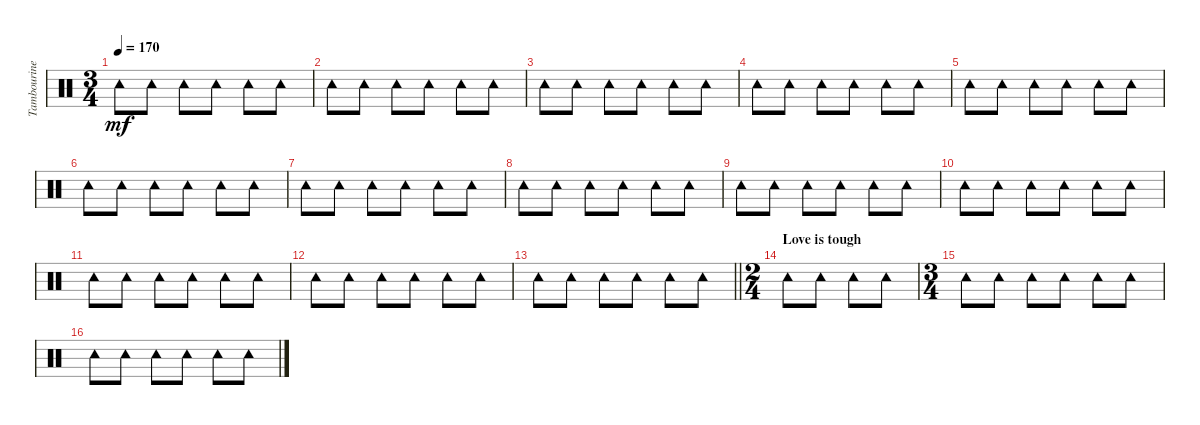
\track ("Tambourine" "Tambourine") {instrument percussion}
\staff {score}
\articulation defaults
\ts (3 4)
\tempo 170
\clef neutral
\ks c "Tambourine (hit)".8{dy mf} "Tambourine (hit)".8 "Tambourine (hit)".8 "Tambourine (hit)".8 "Tambourine (hit)".8 "Tambourine (hit)".8
|
"Tambourine (hit)".8 "Tambourine (hit)".8 "Tambourine (hit)".8 "Tambourine (hit)".8 "Tambourine (hit)".8 "Tambourine (hit)".8 |
"Tambourine (hit)".8 "Tambourine (hit)".8 "Tambourine (hit)".8 "Tambourine (hit)".8 "Tambourine (hit)".8 "Tambourine (hit)".8 |
"Tambourine (hit)".8 "Tambourine (hit)".8 "Tambourine (hit)".8 "Tambourine (hit)".8 "Tambourine (hit)".8 "Tambourine (hit)".8 |
"Tambourine (hit)".8 "Tambourine (hit)".8 "Tambourine (hit)".8 "Tambourine (hit)".8 "Tambourine (hit)".8 "Tambourine (hit)".8 |
"Tambourine (hit)".8 "Tambourine (hit)".8 "Tambourine (hit)".8 "Tambourine (hit)".8 "Tambourine (hit)".8 "Tambourine (hit)".8 |
"Tambourine (hit)".8 "Tambourine (hit)".8 "Tambourine (hit)".8 "Tambourine (hit)".8 "Tambourine (hit)".8 "Tambourine (hit)".8 |
"Tambourine (hit)".8 "Tambourine (hit)".8 "Tambourine (hit)".8 "Tambourine (hit)".8 "Tambourine (hit)".8 "Tambourine (hit)".8 |
"Tambourine (hit)".8 "Tambourine (hit)".8 "Tambourine (hit)".8 "Tambourine (hit)".8 "Tambourine (hit)".8 "Tambourine (hit)".8 |
"Tambourine (hit)".8 "Tambourine (hit)".8 "Tambourine (hit)".8 "Tambourine (hit)".8 "Tambourine (hit)".8 "Tambourine (hit)".8 |
"Tambourine (hit)".8 "Tambourine (hit)".8 "Tambourine (hit)".8 "Tambourine (hit)".8 "Tambourine (hit)".8 "Tambourine (hit)".8 |
"Tambourine (hit)".8 "Tambourine (hit)".8 "Tambourine (hit)".8 "Tambourine (hit)".8 "Tambourine (hit)".8 "Tambourine (hit)".8 |
\barLineRight lightlight "Tambourine (hit)".8 "Tambourine (hit)".8 "Tambourine (hit)".8 "Tambourine (hit)".8 "Tambourine (hit)".8 "Tambourine (hit)".8
|
\ts (2 4)
\section ("" "Love is tough")
"Tambourine (hit)".8 "Tambourine (hit)".8 "Tambourine (hit)".8 "Tambourine (hit)".8 |
\ts (3 4)
"Tambourine (hit)".8 "Tambourine (hit)".8 "Tambourine (hit)".8 "Tambourine (hit)".8 "Tambourine (hit)".8 "Tambourine (hit)".8 |
"Tambourine (hit)".8 "Tambourine (hit)".8 "Tambourine (hit)".8 "Tambourine (hit)".8 "Tambourine (hit)".8 "Tambourine (hit)".8
